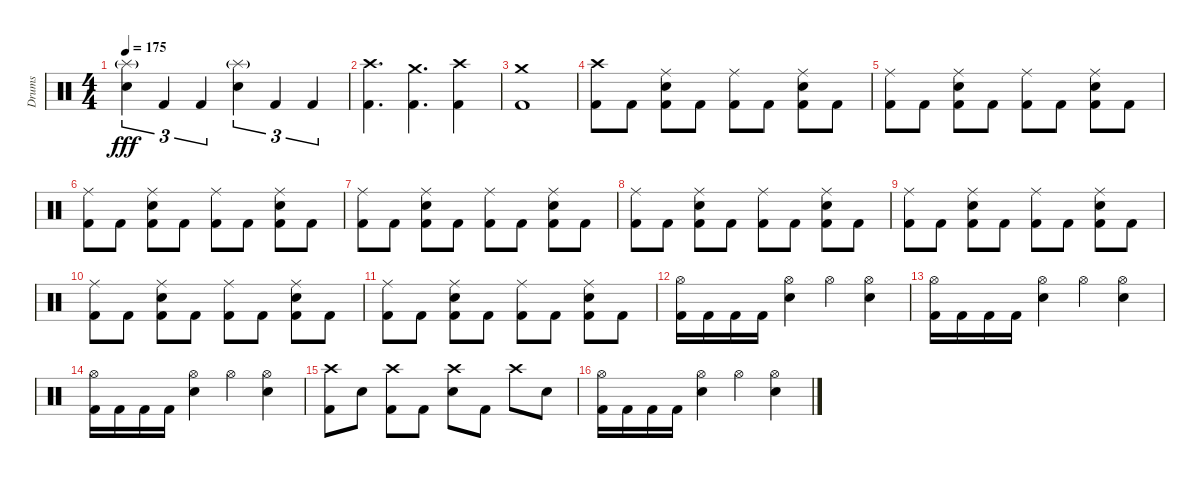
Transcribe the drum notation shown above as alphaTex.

\track ("Drums" "Drums") {instrument percussion}
\staff {score}
\articulation defaults
\ts (4 4)
\tempo 175
\clef neutral
\ks c
("Splash (hit)"{g} "Electric Snare (hit)").4{tu (3 2) dy fff} "Kick (hit) 2".4{tu (3 2)} "Kick (hit) 2".4{tu (3 2)} ("Splash (hit)"{g} "Electric Snare (hit)").4{tu (3 2)} "Kick (hit) 2".4{tu (3 2)} "Kick (hit) 2".4{tu (3 2)} |
("Crash high (hit)" "Kick (hit) 2").4{d} ("Crash medium (hit)" "Kick (hit) 2").4{d} ("Crash high (hit)" "Kick (hit) 2").4 |
("Crash medium (hit)" "Kick (hit) 2").1 |
("Crash high (hit)" "Kick (hit) 2").8 "Kick (hit) 2".8 ("Ride (middle)" "Electric Snare (hit)" "Kick (hit) 2").8 "Kick (hit) 2".8 ("Ride (middle)" "Kick (hit) 2").8 "Kick (hit) 2".8 ("Ride (middle)" "Electric Snare (hit)" "Kick (hit) 2").8 "Kick (hit) 2".8 |
("Ride (middle)" "Kick (hit) 2").8 "Kick (hit) 2".8 ("Ride (middle)" "Electric Snare (hit)" "Kick (hit) 2").8 "Kick (hit) 2".8 ("Ride (middle)" "Kick (hit) 2").8 "Kick (hit) 2".8 ("Ride (middle)" "Electric Snare (hit)" "Kick (hit) 2").8 "Kick (hit) 2".8 |
("Ride (middle)" "Kick (hit) 2").8 "Kick (hit) 2".8 ("Ride (middle)" "Electric Snare (hit)" "Kick (hit) 2").8 "Kick (hit) 2".8 ("Ride (middle)" "Kick (hit) 2").8 "Kick (hit) 2".8 ("Ride (middle)" "Electric Snare (hit)" "Kick (hit) 2").8 "Kick (hit) 2".8 |
("Ride (middle)" "Kick (hit) 2").8 "Kick (hit) 2".8 ("Ride (middle)" "Electric Snare (hit)" "Kick (hit) 2").8 "Kick (hit) 2".8 ("Ride (middle)" "Kick (hit) 2").8 "Kick (hit) 2".8 ("Ride (middle)" "Electric Snare (hit)" "Kick (hit) 2").8 "Kick (hit) 2".8 |
("Ride (middle)" "Kick (hit) 2").8 "Kick (hit) 2".8 ("Ride (middle)" "Electric Snare (hit)" "Kick (hit) 2").8 "Kick (hit) 2".8 ("Ride (middle)" "Kick (hit) 2").8 "Kick (hit) 2".8 ("Ride (middle)" "Electric Snare (hit)" "Kick (hit) 2").8 "Kick (hit) 2".8 |
("Ride (middle)" "Kick (hit) 2").8 "Kick (hit) 2".8 ("Ride (middle)" "Electric Snare (hit)" "Kick (hit) 2").8 "Kick (hit) 2".8 ("Ride (middle)" "Kick (hit) 2").8 "Kick (hit) 2".8 ("Ride (middle)" "Electric Snare (hit)" "Kick (hit) 2").8 "Kick (hit) 2".8 |
("Ride (middle)" "Kick (hit) 2").8 "Kick (hit) 2".8 ("Ride (middle)" "Electric Snare (hit)" "Kick (hit) 2").8 "Kick (hit) 2".8 ("Ride (middle)" "Kick (hit) 2").8 "Kick (hit) 2".8 ("Ride (middle)" "Electric Snare (hit)" "Kick (hit) 2").8 "Kick (hit) 2".8 |
("Ride (middle)" "Kick (hit) 2").8 "Kick (hit) 2".8 ("Ride (middle)" "Electric Snare (hit)" "Kick (hit) 2").8 "Kick (hit) 2".8 ("Ride (middle)" "Kick (hit) 2").8 "Kick (hit) 2".8 ("Ride (middle)" "Electric Snare (hit)" "Kick (hit) 2").8 "Kick (hit) 2".8 |
("Hi-Hat (open)" "Kick (hit) 2").16 "Kick (hit) 2".16 "Kick (hit) 2".16 "Kick (hit) 2".16 ("Hi-Hat (open)" "Electric Snare (hit)").4 "Hi-Hat (open)".4 ("Hi-Hat (open)" "Electric Snare (hit)").4 |
("Hi-Hat (open)" "Kick (hit) 2").16 "Kick (hit) 2".16 "Kick (hit) 2".16 "Kick (hit) 2".16 ("Hi-Hat (open)" "Electric Snare (hit)").4 "Hi-Hat (open)".4 ("Hi-Hat (open)" "Electric Snare (hit)").4 |
("Hi-Hat (open)" "Kick (hit) 2").16 "Kick (hit) 2".16 "Kick (hit) 2".16 "Kick (hit) 2".16 ("Hi-Hat (open)" "Electric Snare (hit)").4 "Hi-Hat (open)".4 ("Hi-Hat (open)" "Electric Snare (hit)").4 |
("Crash high (hit)" "Kick (hit) 2").8 "Electric Snare (hit)".8 ("Crash high (hit)" "Kick (hit) 2").8 "Kick (hit) 2".8 ("Crash high (hit)" "Electric Snare (hit)").8 "Kick (hit) 2".8 "Crash high (hit)".8 "Electric Snare (hit)".8 |
("Hi-Hat (open)" "Kick (hit) 2").16 "Kick (hit) 2".16 "Kick (hit) 2".16 "Kick (hit) 2".16 ("Hi-Hat (open)" "Electric Snare (hit)").4 "Hi-Hat (open)".4 ("Hi-Hat (open)" "Electric Snare (hit)").4
